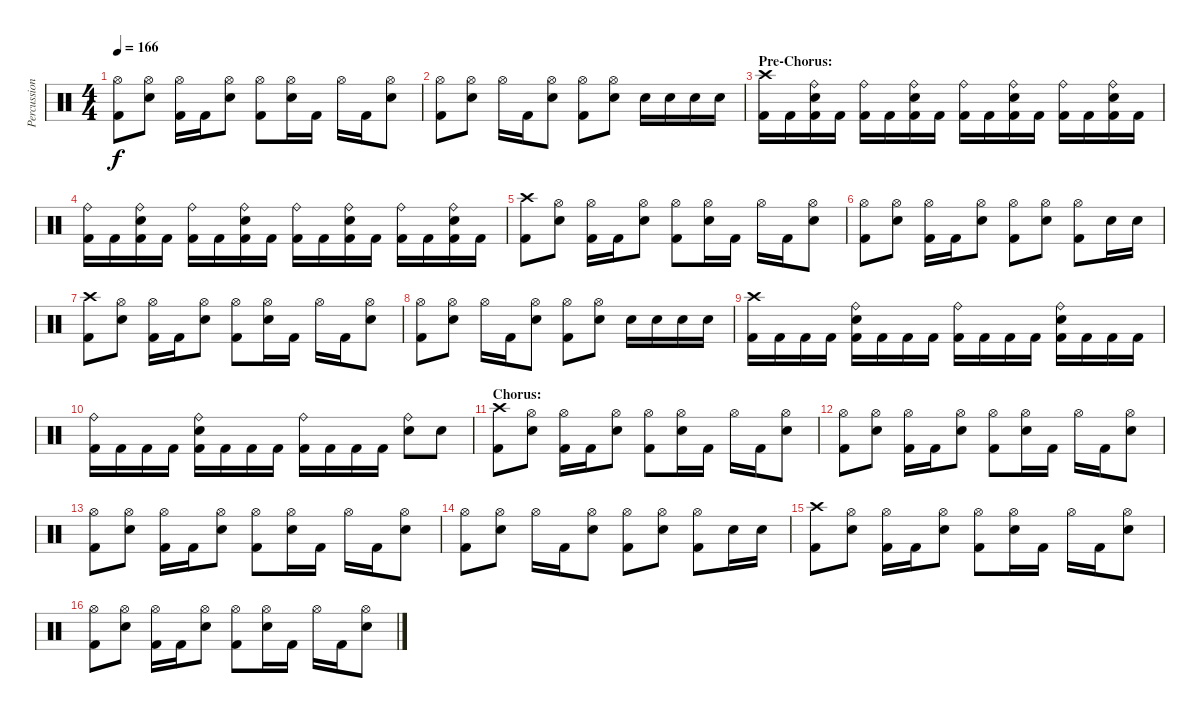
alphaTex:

\track ("Percussion" "Percussion") {instrument percussion}
\staff {score}
\articulation defaults
\ts (4 4)
\tempo 166
\clef neutral
\ks c
("Hi-Hat (open)" "Kick (hit) 2").8{dy f} ("Hi-Hat (open)" "Electric Snare (hit)").8 ("Hi-Hat (open)" "Kick (hit) 2").16 "Kick (hit) 2".16 ("Hi-Hat (open)" "Electric Snare (hit)").8 ("Hi-Hat (open)" "Kick (hit) 2").8 ("Hi-Hat (open)" "Electric Snare (hit)").16 "Kick (hit) 2".16 "Hi-Hat (open)".16 "Kick (hit) 2".16 ("Hi-Hat (open)" "Electric Snare (hit)").8 |
("Hi-Hat (open)" "Kick (hit) 2").8 ("Hi-Hat (open)" "Electric Snare (hit)").8 "Hi-Hat (open)".16 "Kick (hit) 2".16 ("Hi-Hat (open)" "Electric Snare (hit)").8 ("Hi-Hat (open)" "Kick (hit) 2").8 ("Hi-Hat (open)" "Electric Snare (hit)").8 "Electric Snare (hit)".16 "Electric Snare (hit)".16 "Electric Snare (hit)".16 "Electric Snare (hit)".16 |
\section ("" "Pre-Chorus:")
("Crash high (hit)" "Kick (hit) 2").16 "Kick (hit) 2".16 ("Ride (bell)" "Electric Snare (hit)" "Kick (hit) 2").16 "Kick (hit) 2".16 ("Ride (bell)" "Kick (hit) 2").16 "Kick (hit) 2".16 ("Ride (bell)" "Electric Snare (hit)" "Kick (hit) 2").16 "Kick (hit) 2".16 ("Ride (bell)" "Kick (hit) 2").16 "Kick (hit) 2".16 ("Ride (bell)" "Electric Snare (hit)" "Kick (hit) 2").16 "Kick (hit) 2".16 ("Ride (bell)" "Kick (hit) 2").16 "Kick (hit) 2".16 ("Ride (bell)" "Electric Snare (hit)" "Kick (hit) 2").16 "Kick (hit) 2".16 |
("Ride (bell)" "Kick (hit) 2").16 "Kick (hit) 2".16 ("Ride (bell)" "Electric Snare (hit)" "Kick (hit) 2").16 "Kick (hit) 2".16 ("Ride (bell)" "Kick (hit) 2").16 "Kick (hit) 2".16 ("Ride (bell)" "Electric Snare (hit)" "Kick (hit) 2").16 "Kick (hit) 2".16 ("Ride (bell)" "Kick (hit) 2").16 "Kick (hit) 2".16 ("Ride (bell)" "Electric Snare (hit)" "Kick (hit) 2").16 "Kick (hit) 2".16 ("Ride (bell)" "Kick (hit) 2").16 "Kick (hit) 2".16 ("Ride (bell)" "Electric Snare (hit)" "Kick (hit) 2").16 "Kick (hit) 2".16 |
("Crash high (hit)" "Kick (hit) 2").8 ("Hi-Hat (open)" "Electric Snare (hit)").8 ("Hi-Hat (open)" "Kick (hit) 2").16 "Kick (hit) 2".16 ("Hi-Hat (open)" "Electric Snare (hit)").8 ("Hi-Hat (open)" "Kick (hit) 2").8 ("Hi-Hat (open)" "Electric Snare (hit)").16 "Kick (hit) 2".16 "Hi-Hat (open)".16 "Kick (hit) 2".16 ("Hi-Hat (open)" "Electric Snare (hit)").8 |
("Hi-Hat (open)" "Kick (hit) 2").8 ("Hi-Hat (open)" "Electric Snare (hit)").8 ("Hi-Hat (open)" "Kick (hit) 2").16 "Kick (hit) 2".16 ("Hi-Hat (open)" "Electric Snare (hit)").8 ("Hi-Hat (open)" "Kick (hit) 2").8 ("Hi-Hat (open)" "Electric Snare (hit)").8 ("Hi-Hat (open)" "Kick (hit) 2").8 "Electric Snare (hit)".16 "Electric Snare (hit)".16 |
("Crash high (hit)" "Kick (hit) 2").8 ("Hi-Hat (open)" "Electric Snare (hit)").8 ("Hi-Hat (open)" "Kick (hit) 2").16 "Kick (hit) 2".16 ("Hi-Hat (open)" "Electric Snare (hit)").8 ("Hi-Hat (open)" "Kick (hit) 2").8 ("Hi-Hat (open)" "Electric Snare (hit)").16 "Kick (hit) 2".16 "Hi-Hat (open)".16 "Kick (hit) 2".16 ("Hi-Hat (open)" "Electric Snare (hit)").8 |
("Hi-Hat (open)" "Kick (hit) 2").8 ("Hi-Hat (open)" "Electric Snare (hit)").8 "Hi-Hat (open)".16 "Kick (hit) 2".16 ("Hi-Hat (open)" "Electric Snare (hit)").8 ("Hi-Hat (open)" "Kick (hit) 2").8 ("Hi-Hat (open)" "Electric Snare (hit)").8 "Electric Snare (hit)".16 "Electric Snare (hit)".16 "Electric Snare (hit)".16 "Electric Snare (hit)".16 |
("Crash high (hit)" "Kick (hit) 2").16 "Kick (hit) 2".16 "Kick (hit) 2".16 "Kick (hit) 2".16 ("Ride (bell)" "Electric Snare (hit)" "Kick (hit) 2").16 "Kick (hit) 2".16 "Kick (hit) 2".16 "Kick (hit) 2".16 ("Ride (bell)" "Kick (hit) 2").16 "Kick (hit) 2".16 "Kick (hit) 2".16 "Kick (hit) 2".16 ("Ride (bell)" "Electric Snare (hit)" "Kick (hit) 2").16 "Kick (hit) 2".16 "Kick (hit) 2".16 "Kick (hit) 2".16 |
("Ride (bell)" "Kick (hit) 2").16 "Kick (hit) 2".16 "Kick (hit) 2".16 "Kick (hit) 2".16 ("Ride (bell)" "Electric Snare (hit)" "Kick (hit) 2").16 "Kick (hit) 2".16 "Kick (hit) 2".16 "Kick (hit) 2".16 ("Ride (bell)" "Kick (hit) 2").16 "Kick (hit) 2".16 "Kick (hit) 2".16 "Kick (hit) 2".16 ("Ride (bell)" "Electric Snare (hit)").8 "Electric Snare (hit)".8 |
\section ("" "Chorus:")
("Crash high (hit)" "Kick (hit) 2").8 ("Hi-Hat (open)" "Electric Snare (hit)").8 ("Hi-Hat (open)" "Kick (hit) 2").16 "Kick (hit) 2".16 ("Hi-Hat (open)" "Electric Snare (hit)").8 ("Hi-Hat (open)" "Kick (hit) 2").8 ("Hi-Hat (open)" "Electric Snare (hit)").16 "Kick (hit) 2".16 "Hi-Hat (open)".16 "Kick (hit) 2".16 ("Hi-Hat (open)" "Electric Snare (hit)").8 |
("Hi-Hat (open)" "Kick (hit) 2").8 ("Hi-Hat (open)" "Electric Snare (hit)").8 ("Hi-Hat (open)" "Kick (hit) 2").16 "Kick (hit) 2".16 ("Hi-Hat (open)" "Electric Snare (hit)").8 ("Hi-Hat (open)" "Kick (hit) 2").8 ("Hi-Hat (open)" "Electric Snare (hit)").16 "Kick (hit) 2".16 "Hi-Hat (open)".16 "Kick (hit) 2".16 ("Hi-Hat (open)" "Electric Snare (hit)").8 |
("Hi-Hat (open)" "Kick (hit) 2").8 ("Hi-Hat (open)" "Electric Snare (hit)").8 ("Hi-Hat (open)" "Kick (hit) 2").16 "Kick (hit) 2".16 ("Hi-Hat (open)" "Electric Snare (hit)").8 ("Hi-Hat (open)" "Kick (hit) 2").8 ("Hi-Hat (open)" "Electric Snare (hit)").16 "Kick (hit) 2".16 "Hi-Hat (open)".16 "Kick (hit) 2".16 ("Hi-Hat (open)" "Electric Snare (hit)").8 |
("Hi-Hat (open)" "Kick (hit) 2").8 ("Hi-Hat (open)" "Electric Snare (hit)").8 "Hi-Hat (open)".16 "Kick (hit) 2".16 ("Hi-Hat (open)" "Electric Snare (hit)").8 ("Hi-Hat (open)" "Kick (hit) 2").8 ("Hi-Hat (open)" "Electric Snare (hit)").8 ("Hi-Hat (open)" "Kick (hit) 2").8 "Electric Snare (hit)".16 "Electric Snare (hit)".16 |
("Crash high (hit)" "Kick (hit) 2").8 ("Hi-Hat (open)" "Electric Snare (hit)").8 ("Hi-Hat (open)" "Kick (hit) 2").16 "Kick (hit) 2".16 ("Hi-Hat (open)" "Electric Snare (hit)").8 ("Hi-Hat (open)" "Kick (hit) 2").8 ("Hi-Hat (open)" "Electric Snare (hit)").16 "Kick (hit) 2".16 "Hi-Hat (open)".16 "Kick (hit) 2".16 ("Hi-Hat (open)" "Electric Snare (hit)").8 |
("Hi-Hat (open)" "Kick (hit) 2").8 ("Hi-Hat (open)" "Electric Snare (hit)").8 ("Hi-Hat (open)" "Kick (hit) 2").16 "Kick (hit) 2".16 ("Hi-Hat (open)" "Electric Snare (hit)").8 ("Hi-Hat (open)" "Kick (hit) 2").8 ("Hi-Hat (open)" "Electric Snare (hit)").16 "Kick (hit) 2".16 "Hi-Hat (open)".16 "Kick (hit) 2".16 ("Hi-Hat (open)" "Electric Snare (hit)").8
